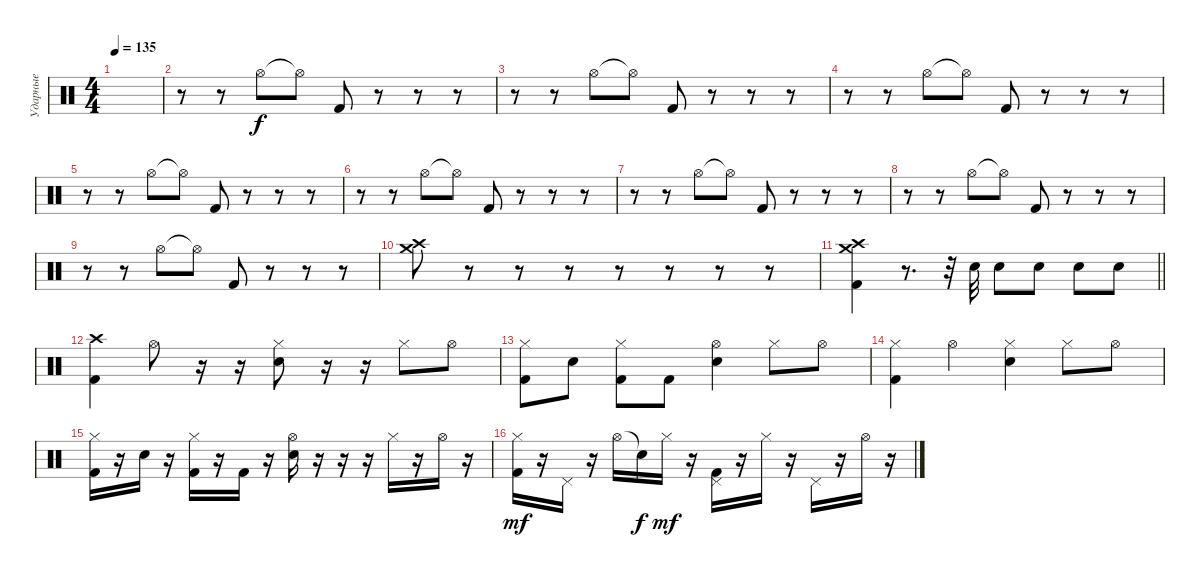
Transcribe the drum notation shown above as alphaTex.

\track ("Ударные" "Ударные") {instrument percussion}
\staff {score}
\articulation defaults
\ts (4 4)
\tempo 135
\clef neutral
\ks c
|
r.8 r.8 "Hi-Hat (open)".8 "Hi-Hat (open)"{t}.8 "Kick (hit) 2".8 r.8 r.8 r.8 |
r.8 r.8 "Hi-Hat (open)".8 "Hi-Hat (open)"{t}.8 "Kick (hit) 2".8 r.8 r.8 r.8 |
r.8 r.8 "Hi-Hat (open)".8 "Hi-Hat (open)"{t}.8 "Kick (hit) 2".8 r.8 r.8 r.8 |
r.8 r.8 "Hi-Hat (open)".8 "Hi-Hat (open)"{t}.8 "Kick (hit) 2".8 r.8 r.8 r.8 |
r.8 r.8 "Hi-Hat (open)".8 "Hi-Hat (open)"{t}.8 "Kick (hit) 2".8 r.8 r.8 r.8 |
r.8 r.8 "Hi-Hat (open)".8 "Hi-Hat (open)"{t}.8 "Kick (hit) 2".8 r.8 r.8 r.8 |
r.8 r.8 "Hi-Hat (open)".8 "Hi-Hat (open)"{t}.8 "Kick (hit) 2".8 r.8 r.8 r.8 |
r.8 r.8 "Hi-Hat (open)".8 "Hi-Hat (open)"{t}.8 "Kick (hit) 2".8 r.8 r.8 r.8 |
("Crash high (hit)" "Crash medium (hit)").8 r.8 r.8 r.8 r.8 r.8 r.8 r.8 |
\barLineRight lightlight
("Crash medium (hit)" "Crash high (hit)" "Kick (hit) 2").4 r.8{d} r.32 "Electric Snare (hit)".32 "Electric Snare (hit)".8 "Electric Snare (hit)".8 "Electric Snare (hit)".8 "Electric Snare (hit)".8 |
("Crash high (hit)" "Kick (hit) 2").4 "Hi-Hat (open)".8 r.16 r.16 ("Hi-Hat (closed)" "Electric Snare (hit)").8 r.16 r.16 "Hi-Hat (closed)".8 "Hi-Hat (open)".8 |
("Hi-Hat (closed)" "Kick (hit) 2").8 "Electric Snare (hit)".8 ("Hi-Hat (closed)" "Kick (hit) 2").8 "Kick (hit) 2".8 ("Hi-Hat (open)" "Snare (hit) 2").4 "Hi-Hat (closed)".8 "Hi-Hat (open)".8 |
("Hi-Hat (closed)" "Kick (hit) 2").4 "Hi-Hat (open)".4 ("Hi-Hat (closed)" "Electric Snare (hit)").4 "Hi-Hat (closed)".8 "Hi-Hat (open)".8 |
("Hi-Hat (closed)" "Kick (hit) 2").16 r.16 "Electric Snare (hit)".16 r.16 ("Hi-Hat (closed)" "Kick (hit) 2").16 r.16 "Kick (hit) 2".16 r.16 ("Hi-Hat (open)" "Snare (hit) 2").16 r.16 r.16 r.16 "Hi-Hat (closed)".16 r.16 "Hi-Hat (open)".16 r.16 |
("Hi-Hat (closed)" "Kick (hit) 2").16{dy mf} r.16 "Pedal Hi-Hat (hit)".16 r.16 "Hi-Hat (open)".16 "Snare (hit)"{t}.16{dy f} "Hi-Hat (closed)".16{dy mf} r.16 ("Pedal Hi-Hat (hit)" "Kick (hit) 2").16 r.16 "Hi-Hat (closed)".16 r.16 "Pedal Hi-Hat (hit)".16 r.16 "Hi-Hat (open)".16 r.16
